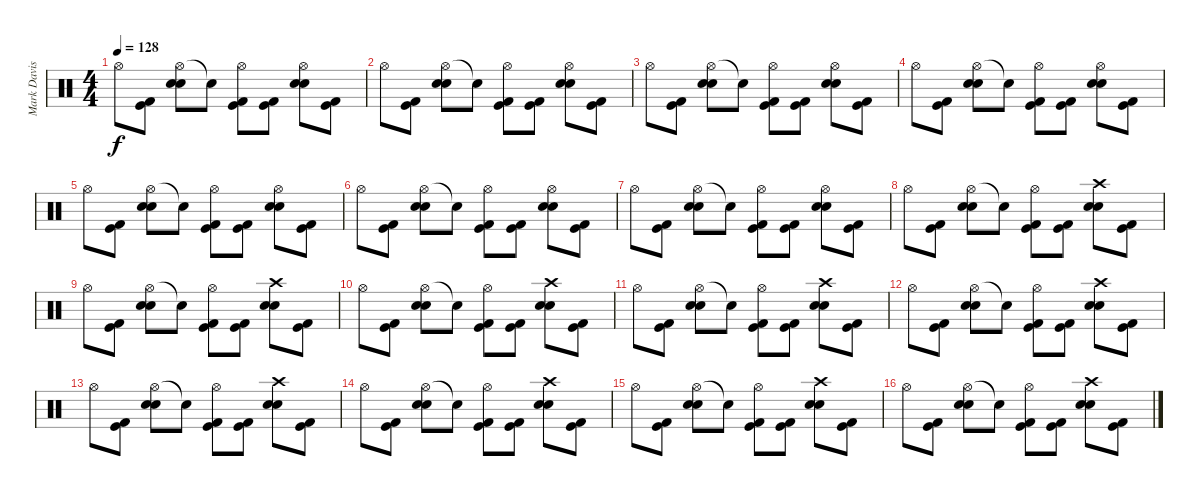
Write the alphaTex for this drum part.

\track ("Mark Davis (drums)" "Mark Davis") {instrument percussion}
\staff {score}
\articulation defaults
\ts (4 4)
\tempo 128
\clef neutral
\ks c "Hi-Hat (open)".8{dy f}
("Kick (hit)" "Kick (hit) 2").8 ("Hi-Hat (open)" "Snare (hit) 2" "Electric Snare (hit)").8 "Snare (hit)"{t}.8 ("Hi-Hat (open)" "Kick (hit)" "Kick (hit) 2").8 ("Kick (hit)" "Kick (hit) 2").8 ("Hi-Hat (open)" "Snare (hit) 2" "Electric Snare (hit)").8 ("Kick (hit)" "Kick (hit) 2").8 |
"Hi-Hat (open)".8 ("Kick (hit)" "Kick (hit) 2").8 ("Hi-Hat (open)" "Snare (hit) 2" "Electric Snare (hit)").8 "Snare (hit)"{t}.8 ("Hi-Hat (open)" "Kick (hit)" "Kick (hit) 2").8 ("Kick (hit)" "Kick (hit) 2").8 ("Hi-Hat (open)" "Snare (hit) 2" "Electric Snare (hit)").8 ("Kick (hit)" "Kick (hit) 2").8 |
"Hi-Hat (open)".8 ("Kick (hit)" "Kick (hit) 2").8 ("Hi-Hat (open)" "Snare (hit) 2" "Electric Snare (hit)").8 "Snare (hit)"{t}.8 ("Hi-Hat (open)" "Kick (hit)" "Kick (hit) 2").8 ("Kick (hit)" "Kick (hit) 2").8 ("Hi-Hat (open)" "Snare (hit) 2" "Electric Snare (hit)").8 ("Kick (hit)" "Kick (hit) 2").8 |
"Hi-Hat (open)".8 ("Kick (hit)" "Kick (hit) 2").8 ("Hi-Hat (open)" "Snare (hit) 2" "Electric Snare (hit)").8 "Snare (hit)"{t}.8 ("Hi-Hat (open)" "Kick (hit)" "Kick (hit) 2").8 ("Kick (hit)" "Kick (hit) 2").8 ("Hi-Hat (open)" "Snare (hit) 2" "Electric Snare (hit)").8 ("Kick (hit)" "Kick (hit) 2").8 |
"Hi-Hat (open)".8 ("Kick (hit)" "Kick (hit) 2").8 ("Hi-Hat (open)" "Snare (hit) 2" "Electric Snare (hit)").8 "Snare (hit)"{t}.8 ("Hi-Hat (open)" "Kick (hit)" "Kick (hit) 2").8 ("Kick (hit)" "Kick (hit) 2").8 ("Hi-Hat (open)" "Snare (hit) 2" "Electric Snare (hit)").8 ("Kick (hit)" "Kick (hit) 2").8 |
"Hi-Hat (open)".8 ("Kick (hit)" "Kick (hit) 2").8 ("Hi-Hat (open)" "Snare (hit) 2" "Electric Snare (hit)").8 "Snare (hit)"{t}.8 ("Hi-Hat (open)" "Kick (hit)" "Kick (hit) 2").8 ("Kick (hit)" "Kick (hit) 2").8 ("Hi-Hat (open)" "Snare (hit) 2" "Electric Snare (hit)").8 ("Kick (hit)" "Kick (hit) 2").8 |
"Hi-Hat (open)".8 ("Kick (hit)" "Kick (hit) 2").8 ("Hi-Hat (open)" "Snare (hit) 2" "Electric Snare (hit)").8 "Snare (hit)"{t}.8 ("Hi-Hat (open)" "Kick (hit)" "Kick (hit) 2").8 ("Kick (hit)" "Kick (hit) 2").8 ("Hi-Hat (open)" "Snare (hit) 2" "Electric Snare (hit)").8 ("Kick (hit)" "Kick (hit) 2").8 |
"Hi-Hat (open)".8 ("Kick (hit)" "Kick (hit) 2").8 ("Hi-Hat (open)" "Snare (hit) 2" "Electric Snare (hit)").8 "Snare (hit)"{t}.8 ("Hi-Hat (open)" "Kick (hit)" "Kick (hit) 2").8 ("Kick (hit)" "Kick (hit) 2").8 ("Crash high (hit)" "Snare (hit) 2" "Electric Snare (hit)").8 ("Kick (hit)" "Kick (hit) 2").8 |
"Hi-Hat (open)".8 ("Kick (hit)" "Kick (hit) 2").8 ("Hi-Hat (open)" "Snare (hit) 2" "Electric Snare (hit)").8 "Snare (hit)"{t}.8 ("Hi-Hat (open)" "Kick (hit)" "Kick (hit) 2").8 ("Kick (hit)" "Kick (hit) 2").8 ("Crash high (hit)" "Snare (hit) 2" "Electric Snare (hit)").8 ("Kick (hit)" "Kick (hit) 2").8 |
"Hi-Hat (open)".8 ("Kick (hit)" "Kick (hit) 2").8 ("Hi-Hat (open)" "Snare (hit) 2" "Electric Snare (hit)").8 "Snare (hit)"{t}.8 ("Hi-Hat (open)" "Kick (hit)" "Kick (hit) 2").8 ("Kick (hit)" "Kick (hit) 2").8 ("Crash high (hit)" "Snare (hit) 2" "Electric Snare (hit)").8 ("Kick (hit)" "Kick (hit) 2").8 |
"Hi-Hat (open)".8 ("Kick (hit)" "Kick (hit) 2").8 ("Hi-Hat (open)" "Snare (hit) 2" "Electric Snare (hit)").8 "Snare (hit)"{t}.8 ("Hi-Hat (open)" "Kick (hit)" "Kick (hit) 2").8 ("Kick (hit)" "Kick (hit) 2").8 ("Crash high (hit)" "Snare (hit) 2" "Electric Snare (hit)").8 ("Kick (hit)" "Kick (hit) 2").8 |
"Hi-Hat (open)".8 ("Kick (hit)" "Kick (hit) 2").8 ("Hi-Hat (open)" "Snare (hit) 2" "Electric Snare (hit)").8 "Snare (hit)"{t}.8 ("Hi-Hat (open)" "Kick (hit)" "Kick (hit) 2").8 ("Kick (hit)" "Kick (hit) 2").8 ("Crash high (hit)" "Snare (hit) 2" "Electric Snare (hit)").8 ("Kick (hit)" "Kick (hit) 2").8 |
"Hi-Hat (open)".8 ("Kick (hit)" "Kick (hit) 2").8 ("Hi-Hat (open)" "Snare (hit) 2" "Electric Snare (hit)").8 "Snare (hit)"{t}.8 ("Hi-Hat (open)" "Kick (hit)" "Kick (hit) 2").8 ("Kick (hit)" "Kick (hit) 2").8 ("Crash high (hit)" "Snare (hit) 2" "Electric Snare (hit)").8 ("Kick (hit)" "Kick (hit) 2").8 |
"Hi-Hat (open)".8 ("Kick (hit)" "Kick (hit) 2").8 ("Hi-Hat (open)" "Snare (hit) 2" "Electric Snare (hit)").8 "Snare (hit)"{t}.8 ("Hi-Hat (open)" "Kick (hit)" "Kick (hit) 2").8 ("Kick (hit)" "Kick (hit) 2").8 ("Crash high (hit)" "Snare (hit) 2" "Electric Snare (hit)").8 ("Kick (hit)" "Kick (hit) 2").8 |
"Hi-Hat (open)".8 ("Kick (hit)" "Kick (hit) 2").8 ("Hi-Hat (open)" "Snare (hit) 2" "Electric Snare (hit)").8 "Snare (hit)"{t}.8 ("Hi-Hat (open)" "Kick (hit)" "Kick (hit) 2").8 ("Kick (hit)" "Kick (hit) 2").8 ("Crash high (hit)" "Snare (hit) 2" "Electric Snare (hit)").8 ("Kick (hit)" "Kick (hit) 2").8 |
"Hi-Hat (open)".8 ("Kick (hit)" "Kick (hit) 2").8 ("Hi-Hat (open)" "Snare (hit) 2" "Electric Snare (hit)").8 "Snare (hit)"{t}.8 ("Hi-Hat (open)" "Kick (hit)" "Kick (hit) 2").8 ("Kick (hit)" "Kick (hit) 2").8 ("Crash high (hit)" "Snare (hit) 2" "Electric Snare (hit)").8 ("Kick (hit)" "Kick (hit) 2").8
